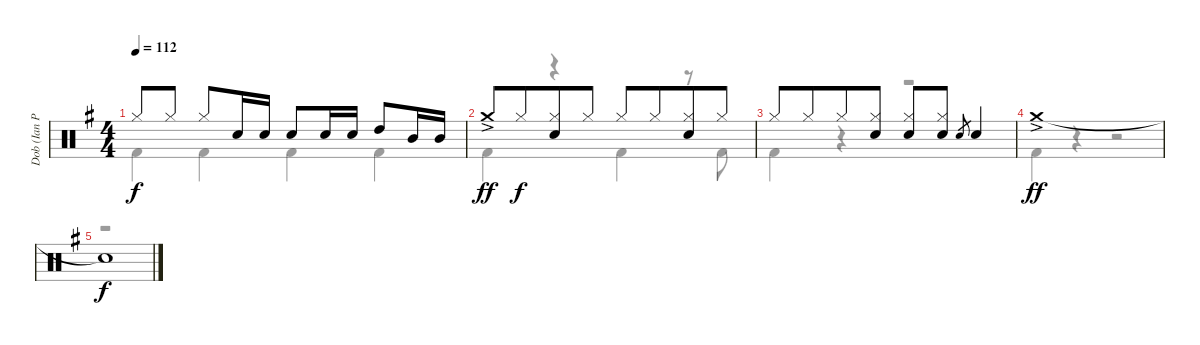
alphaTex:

\track ("Dob (Ian Paice)" "Dob (Ian P") {instrument percussion}
\staff {score}
\articulation defaults
\voice
\ts (4 4)
\tempo 112
\clef neutral
\ks g "Hi-Hat (closed)".8{dy f} "Hi-Hat (closed)".8 "Hi-Hat (closed)".8 "Electric Snare (hit)".16 "Electric Snare (hit)".16 "Electric Snare (hit)".8 "Electric Snare (hit)".16 "Electric Snare (hit)".16 "High Tom (hit)".8 "Mid Tom (hit)".16 "Mid Tom (hit)".16
|
"Crash medium (hit)"{ac}.8{dy ff} "Hi-Hat (closed)".8{dy f beam merge} ("Hi-Hat (closed)" "Electric Snare (hit)").8 "Hi-Hat (closed)".8 "Hi-Hat (closed)".8 "Hi-Hat (closed)".8{beam merge} ("Hi-Hat (closed)" "Electric Snare (hit)").8 "Hi-Hat (closed)".8 |
"Hi-Hat (closed)".8 "Hi-Hat (closed)".8{beam merge} "Hi-Hat (closed)".8{beam merge} ("Hi-Hat (closed)" "Electric Snare (hit)").8{beam split} ("Hi-Hat (closed)" "Electric Snare (hit)").8{beam merge} ("Hi-Hat (closed)" "Electric Snare (hit)").8 "Electric Snare (hit)".8{gr} "Electric Snare (hit)".4 |
"Crash medium (hit)"{ac}.1{dy ff} |
"Snare (hit)"{t}.1{dy f} |
\voice
\clef neutral
\ottava regular
\simile none
\ks g "Kick (hit) 2".4{dy f} "Kick (hit) 2".4 "Kick (hit) 2".4 "Kick (hit) 2".4
|
"Kick (hit) 2".4 r.4 "Kick (hit) 2".4 r.8 "Kick (hit) 2".8 |
"Kick (hit) 2".4 r.4 r.2 |
"Kick (hit) 2".4 r.4 r.2 |
r.1 |
